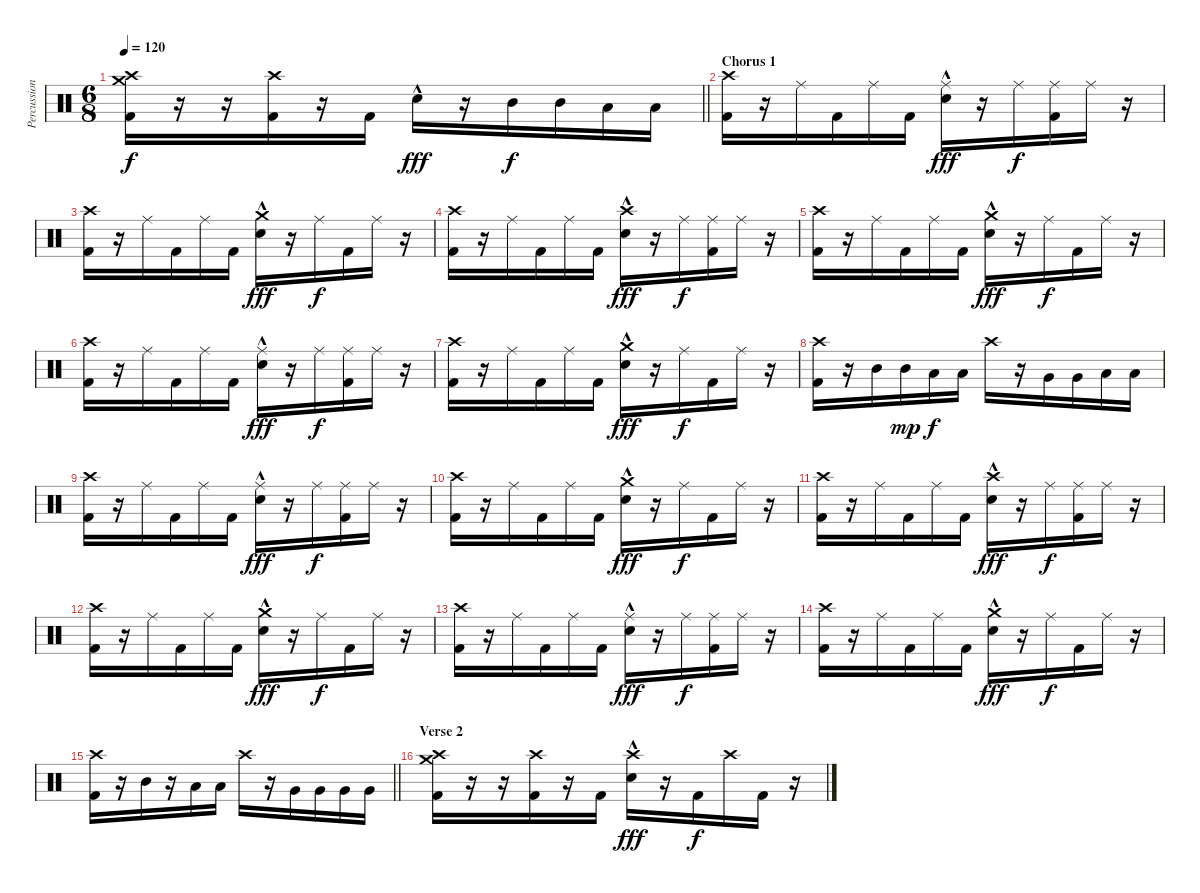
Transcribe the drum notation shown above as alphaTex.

\track ("Percussion" "Percussion") {instrument percussion}
\staff {score}
\articulation defaults
\ts (6 8)
\tempo 120
\clef neutral
\barLineRight lightlight
\ks c
("Kick (hit) 2" "Crash medium (hit)" "Crash high (hit)").16{dy f} r.16 r.16 ("Kick (hit) 2" "Crash high (hit)").16 r.16 "Kick (hit) 2".16 "Snare (hit) 2"{hac}.16{dy fff} r.16 "Mid Tom (hit)".16{dy f} "Mid Tom (hit)".16 "Low Tom (hit)".16 "Low Tom (hit)".16 |
\section ("" "Chorus 1")
("Kick (hit) 2" "Crash high (hit)").16 r.16 "Ride (middle)".16 "Kick (hit) 2".16 "Ride (middle)".16 "Kick (hit) 2".16 ("Snare (hit) 2"{hac} "Ride (middle)").16{dy fff} r.16 "Ride (middle)".16{dy f} ("Kick (hit) 2" "Ride (middle)").16 "Ride (middle)".16 r.16 |
("Kick (hit) 2" "Crash high (hit)").16 r.16 "Ride (middle)".16 "Kick (hit) 2".16 "Ride (middle)".16 "Kick (hit) 2".16 ("Snare (hit) 2"{hac} "Crash medium (hit)").16{dy fff} r.16 "Ride (middle)".16{dy f} "Kick (hit) 2".16 "Ride (middle)".16 r.16 |
("Kick (hit) 2" "Crash high (hit)").16 r.16 "Ride (middle)".16 "Kick (hit) 2".16 "Ride (middle)".16 "Kick (hit) 2".16 ("Snare (hit) 2"{hac} "Crash high (hit)").16{dy fff} r.16 "Ride (middle)".16{dy f} ("Kick (hit) 2" "Ride (middle)").16 "Ride (middle)".16 r.16 |
("Kick (hit) 2" "Crash high (hit)").16 r.16 "Ride (middle)".16 "Kick (hit) 2".16 "Ride (middle)".16 "Kick (hit) 2".16 ("Snare (hit) 2"{hac} "Crash medium (hit)").16{dy fff} r.16 "Ride (middle)".16{dy f} "Kick (hit) 2".16 "Ride (middle)".16 r.16 |
("Kick (hit) 2" "Crash high (hit)").16 r.16 "Ride (middle)".16 "Kick (hit) 2".16 "Ride (middle)".16 "Kick (hit) 2".16 ("Snare (hit) 2"{hac} "Ride (middle)").16{dy fff} r.16 "Ride (middle)".16{dy f} ("Kick (hit) 2" "Ride (middle)").16 "Ride (middle)".16 r.16 |
("Kick (hit) 2" "Crash high (hit)").16 r.16 "Ride (middle)".16 "Kick (hit) 2".16 "Ride (middle)".16 "Kick (hit) 2".16 ("Snare (hit) 2"{hac} "Crash medium (hit)").16{dy fff} r.16 "Ride (middle)".16{dy f} "Kick (hit) 2".16 "Ride (middle)".16 r.16 |
("Kick (hit) 2" "Crash high (hit)").16 r.16 "Mid Tom (hit)".16 "Mid Tom (hit)".16{dy mp} "Low Tom (hit)".16{dy f} "Low Tom (hit)".16 "Crash high (hit)".16 r.16 "Very Low Tom (hit)".16 "Very Low Tom (hit)".16 "Low Floor Tom (hit)".16 "Low Floor Tom (hit)".16 |
("Kick (hit) 2" "Crash high (hit)").16 r.16 "Ride (middle)".16 "Kick (hit) 2".16 "Ride (middle)".16 "Kick (hit) 2".16 ("Snare (hit) 2"{hac} "Ride (middle)").16{dy fff} r.16 "Ride (middle)".16{dy f} ("Kick (hit) 2" "Ride (middle)").16 "Ride (middle)".16 r.16 |
("Kick (hit) 2" "Crash high (hit)").16 r.16 "Ride (middle)".16 "Kick (hit) 2".16 "Ride (middle)".16 "Kick (hit) 2".16 ("Snare (hit) 2"{hac} "Crash medium (hit)").16{dy fff} r.16 "Ride (middle)".16{dy f} "Kick (hit) 2".16 "Ride (middle)".16 r.16 |
("Kick (hit) 2" "Crash high (hit)").16 r.16 "Ride (middle)".16 "Kick (hit) 2".16 "Ride (middle)".16 "Kick (hit) 2".16 ("Snare (hit) 2"{hac} "Crash high (hit)").16{dy fff} r.16 "Ride (middle)".16{dy f} ("Kick (hit) 2" "Ride (middle)").16 "Ride (middle)".16 r.16 |
("Kick (hit) 2" "Crash high (hit)").16 r.16 "Ride (middle)".16 "Kick (hit) 2".16 "Ride (middle)".16 "Kick (hit) 2".16 ("Snare (hit) 2"{hac} "Crash medium (hit)").16{dy fff} r.16 "Ride (middle)".16{dy f} "Kick (hit) 2".16 "Ride (middle)".16 r.16 |
("Kick (hit) 2" "Crash high (hit)").16 r.16 "Ride (middle)".16 "Kick (hit) 2".16 "Ride (middle)".16 "Kick (hit) 2".16 ("Snare (hit) 2"{hac} "Ride (middle)").16{dy fff} r.16 "Ride (middle)".16{dy f} ("Kick (hit) 2" "Ride (middle)").16 "Ride (middle)".16 r.16 |
("Kick (hit) 2" "Crash high (hit)").16 r.16 "Ride (middle)".16 "Kick (hit) 2".16 "Ride (middle)".16 "Kick (hit) 2".16 ("Snare (hit) 2"{hac} "Crash medium (hit)").16{dy fff} r.16 "Ride (middle)".16{dy f} "Kick (hit) 2".16 "Ride (middle)".16 r.16 |
\barLineRight lightlight
("Kick (hit) 2" "Crash high (hit)").16 r.16 "Mid Tom (hit)".16 r.16 "Low Tom (hit)".16 "Low Tom (hit)".16 "Crash high (hit)".16 r.16 "Very Low Tom (hit)".16 "Very Low Tom (hit)".16 "Very Low Tom (hit)".16 "Very Low Tom (hit)".16 |
\section ("" "Verse 2")
("Kick (hit) 2" "Crash medium (hit)" "Crash high (hit)").16 r.16 r.16 ("Kick (hit) 2" "Crash high (hit)").16 r.16 "Kick (hit) 2".16 ("Snare (hit) 2"{hac} "Crash high (hit)").16{dy fff} r.16 "Kick (hit) 2".16{dy f} "Crash high (hit)".16 "Kick (hit) 2".16 r.16
